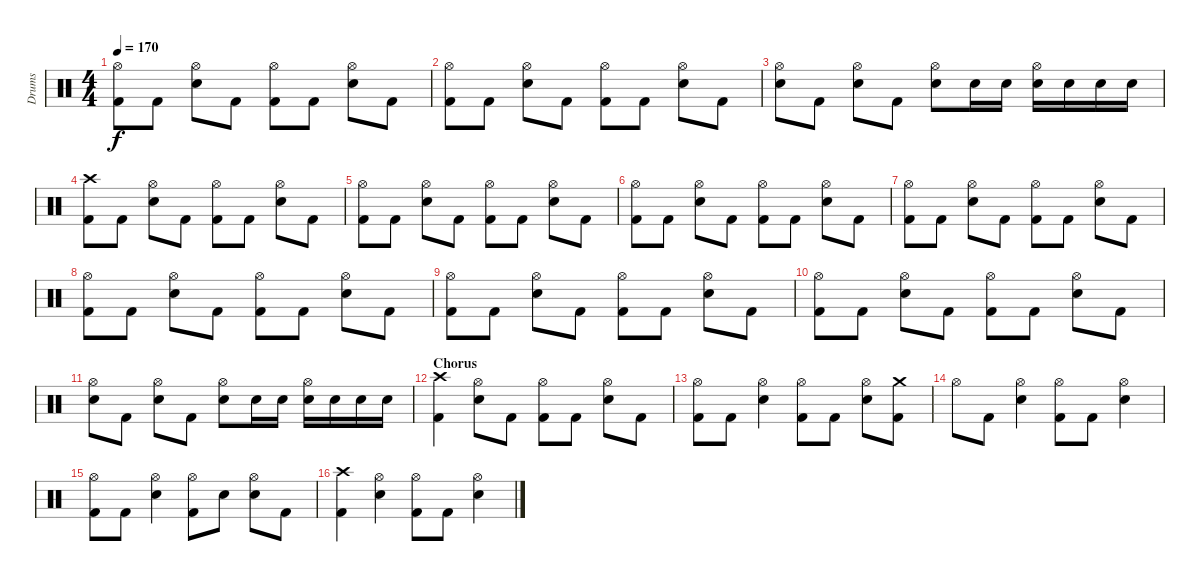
\track ("Drums" "Drums") {instrument percussion}
\staff {score}
\articulation defaults
\ts (4 4)
\tempo 170
\clef neutral
\ks c
("Hi-Hat (open)" "Kick (hit) 2").8{dy f} "Kick (hit) 2".8 ("Hi-Hat (open)" "Electric Snare (hit)").8 "Kick (hit) 2".8 ("Hi-Hat (open)" "Kick (hit) 2").8 "Kick (hit) 2".8 ("Hi-Hat (open)" "Electric Snare (hit)").8 "Kick (hit) 2".8 |
("Hi-Hat (open)" "Kick (hit) 2").8 "Kick (hit) 2".8 ("Hi-Hat (open)" "Electric Snare (hit)").8 "Kick (hit) 2".8 ("Hi-Hat (open)" "Kick (hit) 2").8 "Kick (hit) 2".8 ("Hi-Hat (open)" "Electric Snare (hit)").8 "Kick (hit) 2".8 |
("Hi-Hat (open)" "Electric Snare (hit)").8 "Kick (hit) 2".8 ("Hi-Hat (open)" "Electric Snare (hit)").8 "Kick (hit) 2".8 ("Hi-Hat (open)" "Electric Snare (hit)").8 "Electric Snare (hit)".16 "Electric Snare (hit)".16 ("Hi-Hat (open)" "Electric Snare (hit)").16 "Electric Snare (hit)".16 "Electric Snare (hit)".16 "Electric Snare (hit)".16 |
("Crash high (hit)" "Kick (hit) 2").8 "Kick (hit) 2".8 ("Hi-Hat (open)" "Electric Snare (hit)").8 "Kick (hit) 2".8 ("Hi-Hat (open)" "Kick (hit) 2").8 "Kick (hit) 2".8 ("Hi-Hat (open)" "Electric Snare (hit)").8 "Kick (hit) 2".8 |
("Hi-Hat (open)" "Kick (hit) 2").8 "Kick (hit) 2".8 ("Hi-Hat (open)" "Electric Snare (hit)").8 "Kick (hit) 2".8 ("Hi-Hat (open)" "Kick (hit) 2").8 "Kick (hit) 2".8 ("Hi-Hat (open)" "Electric Snare (hit)").8 "Kick (hit) 2".8 |
("Hi-Hat (open)" "Kick (hit) 2").8 "Kick (hit) 2".8 ("Hi-Hat (open)" "Electric Snare (hit)").8 "Kick (hit) 2".8 ("Hi-Hat (open)" "Kick (hit) 2").8 "Kick (hit) 2".8 ("Hi-Hat (open)" "Electric Snare (hit)").8 "Kick (hit) 2".8 |
("Hi-Hat (open)" "Kick (hit) 2").8 "Kick (hit) 2".8 ("Hi-Hat (open)" "Electric Snare (hit)").8 "Kick (hit) 2".8 ("Hi-Hat (open)" "Kick (hit) 2").8 "Kick (hit) 2".8 ("Hi-Hat (open)" "Electric Snare (hit)").8 "Kick (hit) 2".8 |
("Hi-Hat (open)" "Kick (hit) 2").8 "Kick (hit) 2".8 ("Hi-Hat (open)" "Electric Snare (hit)").8 "Kick (hit) 2".8 ("Hi-Hat (open)" "Kick (hit) 2").8 "Kick (hit) 2".8 ("Hi-Hat (open)" "Electric Snare (hit)").8 "Kick (hit) 2".8 |
("Hi-Hat (open)" "Kick (hit) 2").8 "Kick (hit) 2".8 ("Hi-Hat (open)" "Electric Snare (hit)").8 "Kick (hit) 2".8 ("Hi-Hat (open)" "Kick (hit) 2").8 "Kick (hit) 2".8 ("Hi-Hat (open)" "Electric Snare (hit)").8 "Kick (hit) 2".8 |
("Hi-Hat (open)" "Kick (hit) 2").8 "Kick (hit) 2".8 ("Hi-Hat (open)" "Electric Snare (hit)").8 "Kick (hit) 2".8 ("Hi-Hat (open)" "Kick (hit) 2").8 "Kick (hit) 2".8 ("Hi-Hat (open)" "Electric Snare (hit)").8 "Kick (hit) 2".8 |
("Hi-Hat (open)" "Electric Snare (hit)").8 "Kick (hit) 2".8 ("Hi-Hat (open)" "Electric Snare (hit)").8 "Kick (hit) 2".8 ("Hi-Hat (open)" "Electric Snare (hit)").8 "Electric Snare (hit)".16 "Electric Snare (hit)".16 ("Hi-Hat (open)" "Electric Snare (hit)").16 "Electric Snare (hit)".16 "Electric Snare (hit)".16 "Electric Snare (hit)".16 |
\section ("" "Chorus")
("Crash high (hit)" "Kick (hit) 2").4 ("Hi-Hat (open)" "Electric Snare (hit)").8 "Kick (hit) 2".8 ("Hi-Hat (open)" "Kick (hit) 2").8 "Kick (hit) 2".8 ("Hi-Hat (open)" "Electric Snare (hit)").8 "Kick (hit) 2".8 |
("Hi-Hat (open)" "Kick (hit) 2").8 "Kick (hit) 2".8 ("Hi-Hat (open)" "Electric Snare (hit)").4 ("Hi-Hat (open)" "Kick (hit) 2").8 "Kick (hit) 2".8 ("Hi-Hat (open)" "Electric Snare (hit)").8 ("Crash medium (hit)" "Kick (hit) 2").8 |
"Hi-Hat (open)".8 "Kick (hit) 2".8 ("Hi-Hat (open)" "Electric Snare (hit)").4 ("Hi-Hat (open)" "Kick (hit) 2").8 "Kick (hit) 2".8 ("Hi-Hat (open)" "Electric Snare (hit)").4 |
("Hi-Hat (open)" "Kick (hit) 2").8 "Kick (hit) 2".8 ("Hi-Hat (open)" "Electric Snare (hit)").4 ("Hi-Hat (open)" "Kick (hit) 2").8 "Electric Snare (hit)".8 ("Hi-Hat (open)" "Electric Snare (hit)").8 "Kick (hit) 2".8 |
("Crash high (hit)" "Kick (hit) 2").4 ("Hi-Hat (open)" "Electric Snare (hit)").4 ("Hi-Hat (open)" "Kick (hit) 2").8 "Kick (hit) 2".8 ("Hi-Hat (open)" "Electric Snare (hit)").4
